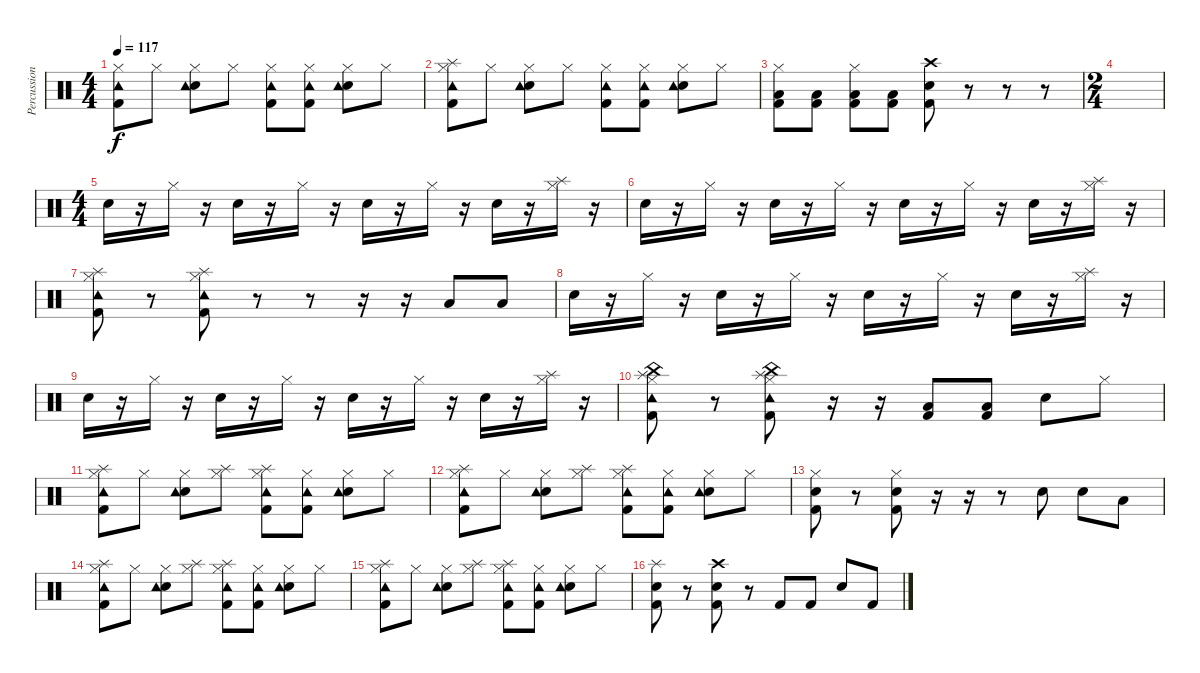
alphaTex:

\track ("Percussion" "Percussion") {instrument percussion}
\staff {score}
\articulation defaults
\ts (4 4)
\tempo 117
\clef neutral
\ks c
("Hi-Hat (closed)" "Kick (hit) 2" "Tambourine (hit)").8{dy f} "Hi-Hat (closed)".8 ("Hi-Hat (closed)" "Electric Snare (hit)" "Tambourine (hit)").8 "Hi-Hat (closed)".8 ("Hi-Hat (closed)" "Kick (hit) 2" "Tambourine (hit)").8 ("Hi-Hat (closed)" "Kick (hit) 2" "Tambourine (hit)").8 ("Hi-Hat (closed)" "Electric Snare (hit)" "Tambourine (hit)").8 "Hi-Hat (closed)".8 |
("Hi-Hat (closed)" "Kick (hit) 2" "Splash (hit)" "Tambourine (hit)").8 "Hi-Hat (closed)".8 ("Hi-Hat (closed)" "Electric Snare (hit)" "Tambourine (hit)").8 "Hi-Hat (closed)".8 ("Hi-Hat (closed)" "Kick (hit) 2" "Tambourine (hit)").8 ("Hi-Hat (closed)" "Kick (hit) 2" "Tambourine (hit)").8 ("Hi-Hat (closed)" "Electric Snare (hit)" "Tambourine (hit)").8 "Hi-Hat (closed)".8 |
("Hi-Hat (closed)" "Low Tom (hit)" "Kick (hit) 2").8 ("Low Tom (hit)" "Kick (hit) 2").8 ("Hi-Hat (closed)" "Low Tom (hit)" "Kick (hit) 2").8 ("Low Tom (hit)" "Kick (hit) 2").8 ("Crash high (hit)" "Electric Snare (hit)" "Kick (hit) 2").8 r.8 r.8 r.8 |
\ts (2 4)
|
\ts (4 4)
"Electric Snare (hit)".16 r.16 "Hi-Hat (closed)".16 r.16 "Electric Snare (hit)".16 r.16 "Hi-Hat (closed)".16 r.16 "Electric Snare (hit)".16 r.16 "Hi-Hat (closed)".16 r.16 "Electric Snare (hit)".16 r.16 ("Hi-Hat (closed)" "Splash (hit)").16 r.16 |
"Electric Snare (hit)".16 r.16 "Hi-Hat (closed)".16 r.16 "Electric Snare (hit)".16 r.16 "Hi-Hat (closed)".16 r.16 "Electric Snare (hit)".16 r.16 "Hi-Hat (closed)".16 r.16 "Electric Snare (hit)".16 r.16 ("Hi-Hat (closed)" "Splash (hit)").16 r.16 |
("Hi-Hat (closed)" "Tambourine (hit)" "Kick (hit) 2" "Splash (hit)").8 r.8 ("Hi-Hat (closed)" "Tambourine (hit)" "Kick (hit) 2" "Splash (hit)").8 r.8 r.8 r.16 r.16 "Low Tom (hit)".8 "Low Tom (hit)".8 |
"Electric Snare (hit)".16 r.16 "Hi-Hat (closed)".16 r.16 "Electric Snare (hit)".16 r.16 "Hi-Hat (closed)".16 r.16 "Electric Snare (hit)".16 r.16 "Hi-Hat (closed)".16 r.16 "Electric Snare (hit)".16 r.16 ("Hi-Hat (closed)" "Splash (hit)").16 r.16 |
"Electric Snare (hit)".16 r.16 "Hi-Hat (closed)".16 r.16 "Electric Snare (hit)".16 r.16 "Hi-Hat (closed)".16 r.16 "Electric Snare (hit)".16 r.16 "Hi-Hat (closed)".16 r.16 "Electric Snare (hit)".16 r.16 ("Hi-Hat (closed)" "Splash (hit)").16 r.16 |
("Hi-Hat (closed)" "Tambourine (hit)" "Kick (hit) 2" "Splash (hit)" "China (hit)").8 r.8 ("Hi-Hat (closed)" "Tambourine (hit)" "Kick (hit) 2" "Splash (hit)" "China (hit)").8 r.16 r.16 ("Low Tom (hit)" "Kick (hit) 2").8 ("Low Tom (hit)" "Kick (hit) 2").8 "Electric Snare (hit)".8 "Hi-Hat (closed)".8 |
("Hi-Hat (closed)" "Kick (hit) 2" "Splash (hit)" "Tambourine (hit)").8 "Hi-Hat (closed)".8 ("Hi-Hat (closed)" "Electric Snare (hit)" "Tambourine (hit)").8 ("Hi-Hat (closed)" "Splash (hit)").8 ("Hi-Hat (closed)" "Kick (hit) 2" "Splash (hit)" "Tambourine (hit)").8 ("Hi-Hat (closed)" "Kick (hit) 2" "Tambourine (hit)").8 ("Hi-Hat (closed)" "Electric Snare (hit)" "Tambourine (hit)").8 "Hi-Hat (closed)".8 |
("Hi-Hat (closed)" "Kick (hit) 2" "Splash (hit)" "Tambourine (hit)").8 "Hi-Hat (closed)".8 ("Hi-Hat (closed)" "Electric Snare (hit)" "Tambourine (hit)").8 ("Hi-Hat (closed)" "Splash (hit)").8 ("Hi-Hat (closed)" "Kick (hit) 2" "Splash (hit)" "Tambourine (hit)").8 ("Hi-Hat (closed)" "Kick (hit) 2" "Tambourine (hit)").8 ("Hi-Hat (closed)" "Electric Snare (hit)" "Tambourine (hit)").8 "Hi-Hat (closed)".8 |
("Hi-Hat (closed)" "Electric Snare (hit)" "Kick (hit) 2").8 r.8 ("Hi-Hat (closed)" "Electric Snare (hit)" "Kick (hit) 2").8 r.16 r.16 r.8 "Electric Snare (hit)".8 "Electric Snare (hit)".8 "Low Tom (hit)".8 |
("Hi-Hat (closed)" "Kick (hit) 2" "Splash (hit)" "Tambourine (hit)").8 "Hi-Hat (closed)".8 ("Hi-Hat (closed)" "Electric Snare (hit)" "Tambourine (hit)").8 ("Hi-Hat (closed)" "Splash (hit)").8 ("Hi-Hat (closed)" "Kick (hit) 2" "Splash (hit)" "Tambourine (hit)").8 ("Hi-Hat (closed)" "Kick (hit) 2" "Tambourine (hit)").8 ("Hi-Hat (closed)" "Electric Snare (hit)" "Tambourine (hit)").8 "Hi-Hat (closed)".8 |
("Hi-Hat (closed)" "Kick (hit) 2" "Splash (hit)" "Tambourine (hit)").8 "Hi-Hat (closed)".8 ("Hi-Hat (closed)" "Electric Snare (hit)" "Tambourine (hit)").8 ("Hi-Hat (closed)" "Splash (hit)").8 ("Hi-Hat (closed)" "Kick (hit) 2" "Splash (hit)" "Tambourine (hit)").8 ("Hi-Hat (closed)" "Kick (hit) 2" "Tambourine (hit)").8 ("Hi-Hat (closed)" "Electric Snare (hit)" "Tambourine (hit)").8 "Hi-Hat (closed)".8 |
("Splash (hit)" "Electric Snare (hit)" "Kick (hit) 2").8 r.8 ("Crash high (hit)" "Electric Snare (hit)" "Kick (hit) 2").8 r.8 "Kick (hit) 2".8 "Kick (hit) 2".8 "Electric Snare (hit)".8 "Kick (hit) 2".8
